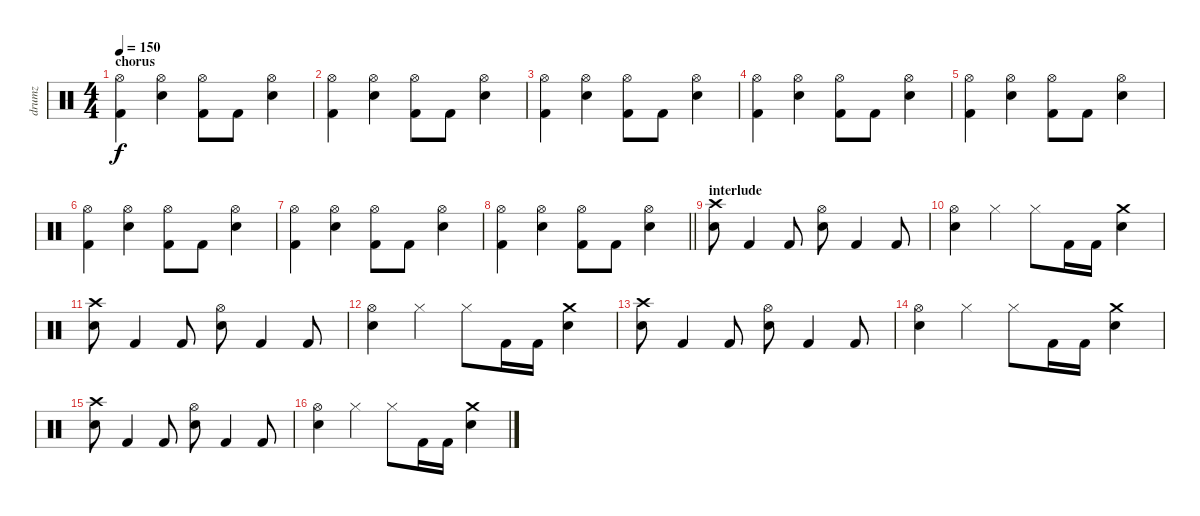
\track ("drumz" "drumz") {instrument percussion}
\staff {score}
\articulation defaults
\ts (4 4)
\section ("" "chorus")
\tempo 150
\clef neutral
\ks c
("Hi-Hat (open)" "Kick (hit) 2").4{dy f} ("Hi-Hat (open)" "Electric Snare (hit)").4 ("Hi-Hat (open)" "Kick (hit) 2").8 "Kick (hit) 2".8 ("Hi-Hat (open)" "Electric Snare (hit)").4 |
("Hi-Hat (open)" "Kick (hit) 2").4 ("Hi-Hat (open)" "Electric Snare (hit)").4 ("Hi-Hat (open)" "Kick (hit) 2").8 "Kick (hit) 2".8 ("Hi-Hat (open)" "Electric Snare (hit)").4 |
("Hi-Hat (open)" "Kick (hit) 2").4 ("Hi-Hat (open)" "Electric Snare (hit)").4 ("Hi-Hat (open)" "Kick (hit) 2").8 "Kick (hit) 2".8 ("Hi-Hat (open)" "Electric Snare (hit)").4 |
("Hi-Hat (open)" "Kick (hit) 2").4 ("Hi-Hat (open)" "Electric Snare (hit)").4 ("Hi-Hat (open)" "Kick (hit) 2").8 "Kick (hit) 2".8 ("Hi-Hat (open)" "Electric Snare (hit)").4 |
("Hi-Hat (open)" "Kick (hit) 2").4 ("Hi-Hat (open)" "Electric Snare (hit)").4 ("Hi-Hat (open)" "Kick (hit) 2").8 "Kick (hit) 2".8 ("Hi-Hat (open)" "Electric Snare (hit)").4 |
("Hi-Hat (open)" "Kick (hit) 2").4 ("Hi-Hat (open)" "Electric Snare (hit)").4 ("Hi-Hat (open)" "Kick (hit) 2").8 "Kick (hit) 2".8 ("Hi-Hat (open)" "Electric Snare (hit)").4 |
("Hi-Hat (open)" "Kick (hit) 2").4 ("Hi-Hat (open)" "Electric Snare (hit)").4 ("Hi-Hat (open)" "Kick (hit) 2").8 "Kick (hit) 2".8 ("Hi-Hat (open)" "Electric Snare (hit)").4 |
\barLineRight lightlight
("Hi-Hat (open)" "Kick (hit) 2").4 ("Hi-Hat (open)" "Electric Snare (hit)").4 ("Hi-Hat (open)" "Kick (hit) 2").8 "Kick (hit) 2".8 ("Hi-Hat (open)" "Electric Snare (hit)").4 |
\section ("" "interlude")
("Crash high (hit)" "Electric Snare (hit)").8 "Kick (hit) 2".4 "Kick (hit) 2".8 ("Hi-Hat (open)" "Electric Snare (hit)").8 "Kick (hit) 2".4 "Kick (hit) 2".8 |
("Hi-Hat (open)" "Electric Snare (hit)").4 "Hi-Hat (closed)".4 "Hi-Hat (closed)".8 "Kick (hit) 2".16 "Kick (hit) 2".16 ("Crash medium (hit)" "Electric Snare (hit)").4 |
("Crash high (hit)" "Electric Snare (hit)").8 "Kick (hit) 2".4 "Kick (hit) 2".8 ("Hi-Hat (open)" "Electric Snare (hit)").8 "Kick (hit) 2".4 "Kick (hit) 2".8 |
("Hi-Hat (open)" "Electric Snare (hit)").4 "Hi-Hat (closed)".4 "Hi-Hat (closed)".8 "Kick (hit) 2".16 "Kick (hit) 2".16 ("Crash medium (hit)" "Electric Snare (hit)").4 |
("Crash high (hit)" "Electric Snare (hit)").8 "Kick (hit) 2".4 "Kick (hit) 2".8 ("Hi-Hat (open)" "Electric Snare (hit)").8 "Kick (hit) 2".4 "Kick (hit) 2".8 |
("Hi-Hat (open)" "Electric Snare (hit)").4 "Hi-Hat (closed)".4 "Hi-Hat (closed)".8 "Kick (hit) 2".16 "Kick (hit) 2".16 ("Crash medium (hit)" "Electric Snare (hit)").4 |
("Crash high (hit)" "Electric Snare (hit)").8 "Kick (hit) 2".4 "Kick (hit) 2".8 ("Hi-Hat (open)" "Electric Snare (hit)").8 "Kick (hit) 2".4 "Kick (hit) 2".8 |
("Hi-Hat (open)" "Electric Snare (hit)").4 "Hi-Hat (closed)".4 "Hi-Hat (closed)".8 "Kick (hit) 2".16 "Kick (hit) 2".16 ("Crash medium (hit)" "Electric Snare (hit)").4
